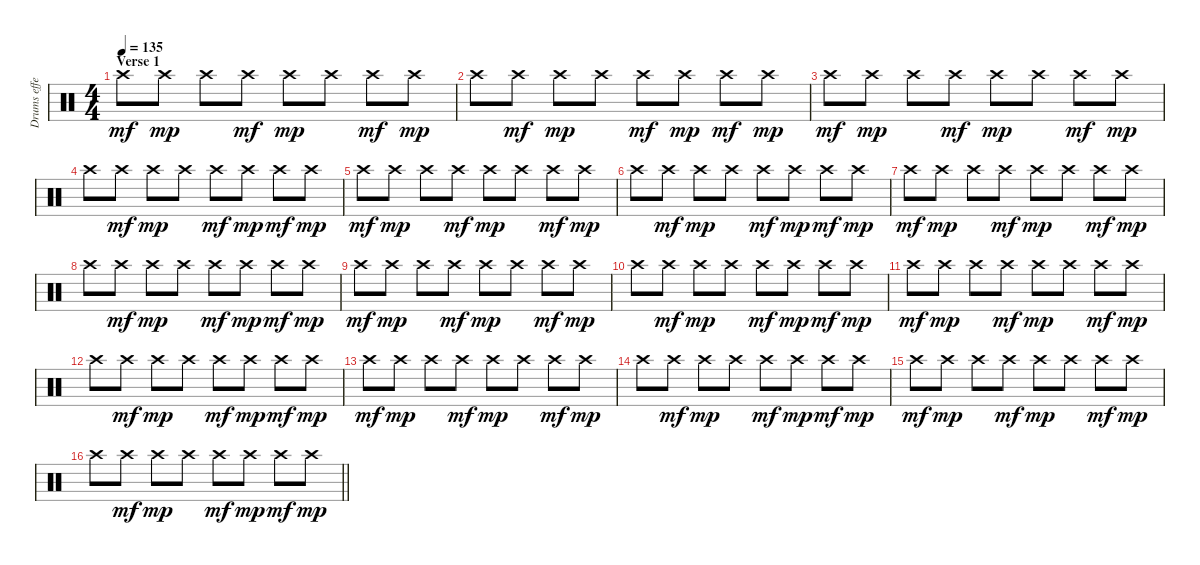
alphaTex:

\track ("Drums effects" "Drums effe") {instrument percussion}
\staff {score}
\articulation defaults
\ts (4 4)
\section ("" "Verse 1")
\tempo 135
\clef neutral
\ks c "Crash high (hit)".8{dy mf volume 5} "Crash high (hit)".8{dy mp} "Crash high (hit)".8 "Crash high (hit)".8{dy mf} "Crash high (hit)".8{dy mp} "Crash high (hit)".8 "Crash high (hit)".8{dy mf} "Crash high (hit)".8{dy mp}
|
"Crash high (hit)".8{volume 5} "Crash high (hit)".8{dy mf} "Crash high (hit)".8{dy mp} "Crash high (hit)".8 "Crash high (hit)".8{dy mf} "Crash high (hit)".8{dy mp} "Crash high (hit)".8{dy mf} "Crash high (hit)".8{dy mp} |
"Crash high (hit)".8{dy mf volume 5} "Crash high (hit)".8{dy mp} "Crash high (hit)".8 "Crash high (hit)".8{dy mf} "Crash high (hit)".8{dy mp} "Crash high (hit)".8 "Crash high (hit)".8{dy mf} "Crash high (hit)".8{dy mp} |
"Crash high (hit)".8{volume 5} "Crash high (hit)".8{dy mf} "Crash high (hit)".8{dy mp} "Crash high (hit)".8 "Crash high (hit)".8{dy mf} "Crash high (hit)".8{dy mp} "Crash high (hit)".8{dy mf} "Crash high (hit)".8{dy mp} |
"Crash high (hit)".8{dy mf volume 5} "Crash high (hit)".8{dy mp} "Crash high (hit)".8 "Crash high (hit)".8{dy mf} "Crash high (hit)".8{dy mp} "Crash high (hit)".8 "Crash high (hit)".8{dy mf} "Crash high (hit)".8{dy mp} |
"Crash high (hit)".8{volume 5} "Crash high (hit)".8{dy mf} "Crash high (hit)".8{dy mp} "Crash high (hit)".8 "Crash high (hit)".8{dy mf} "Crash high (hit)".8{dy mp} "Crash high (hit)".8{dy mf} "Crash high (hit)".8{dy mp} |
"Crash high (hit)".8{dy mf volume 5} "Crash high (hit)".8{dy mp} "Crash high (hit)".8 "Crash high (hit)".8{dy mf} "Crash high (hit)".8{dy mp} "Crash high (hit)".8 "Crash high (hit)".8{dy mf} "Crash high (hit)".8{dy mp} |
"Crash high (hit)".8{volume 5} "Crash high (hit)".8{dy mf} "Crash high (hit)".8{dy mp} "Crash high (hit)".8 "Crash high (hit)".8{dy mf} "Crash high (hit)".8{dy mp} "Crash high (hit)".8{dy mf} "Crash high (hit)".8{dy mp} |
"Crash high (hit)".8{dy mf volume 5} "Crash high (hit)".8{dy mp} "Crash high (hit)".8 "Crash high (hit)".8{dy mf} "Crash high (hit)".8{dy mp} "Crash high (hit)".8 "Crash high (hit)".8{dy mf} "Crash high (hit)".8{dy mp} |
"Crash high (hit)".8{volume 5} "Crash high (hit)".8{dy mf} "Crash high (hit)".8{dy mp} "Crash high (hit)".8 "Crash high (hit)".8{dy mf} "Crash high (hit)".8{dy mp} "Crash high (hit)".8{dy mf} "Crash high (hit)".8{dy mp} |
"Crash high (hit)".8{dy mf volume 5} "Crash high (hit)".8{dy mp} "Crash high (hit)".8 "Crash high (hit)".8{dy mf} "Crash high (hit)".8{dy mp} "Crash high (hit)".8 "Crash high (hit)".8{dy mf} "Crash high (hit)".8{dy mp} |
"Crash high (hit)".8{volume 5} "Crash high (hit)".8{dy mf} "Crash high (hit)".8{dy mp} "Crash high (hit)".8 "Crash high (hit)".8{dy mf} "Crash high (hit)".8{dy mp} "Crash high (hit)".8{dy mf} "Crash high (hit)".8{dy mp} |
"Crash high (hit)".8{dy mf volume 5} "Crash high (hit)".8{dy mp} "Crash high (hit)".8 "Crash high (hit)".8{dy mf} "Crash high (hit)".8{dy mp} "Crash high (hit)".8 "Crash high (hit)".8{dy mf} "Crash high (hit)".8{dy mp} |
"Crash high (hit)".8{volume 5} "Crash high (hit)".8{dy mf} "Crash high (hit)".8{dy mp} "Crash high (hit)".8 "Crash high (hit)".8{dy mf} "Crash high (hit)".8{dy mp} "Crash high (hit)".8{dy mf} "Crash high (hit)".8{dy mp} |
"Crash high (hit)".8{dy mf volume 5} "Crash high (hit)".8{dy mp} "Crash high (hit)".8 "Crash high (hit)".8{dy mf} "Crash high (hit)".8{dy mp} "Crash high (hit)".8 "Crash high (hit)".8{dy mf} "Crash high (hit)".8{dy mp} |
\barLineRight lightlight "Crash high (hit)".8{volume 5} "Crash high (hit)".8{dy mf} "Crash high (hit)".8{dy mp} "Crash high (hit)".8 "Crash high (hit)".8{dy mf} "Crash high (hit)".8{dy mp} "Crash high (hit)".8{dy mf} "Crash high (hit)".8{dy mp}
